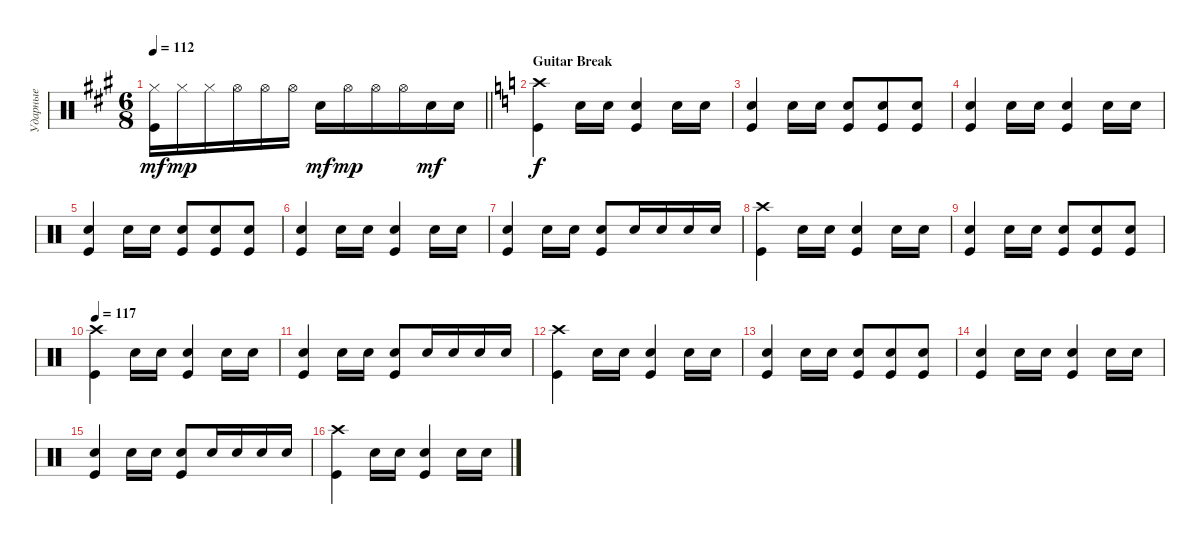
\track ("Ударные" "Ударные") {instrument percussion}
\staff {score}
\articulation defaults
\ts (6 8)
\tempo 112
\clef neutral
\barLineRight lightlight
\ks f#minor
("Kick (hit)" "Hi-Hat (closed)").16{dy mf} "Hi-Hat (closed)".16{dy mp} "Hi-Hat (closed)".16 "Hi-Hat (open)".16 "Hi-Hat (open)".16 "Hi-Hat (open)".16 "Snare (hit) 2".16{dy mf} "Hi-Hat (open)".16{dy mp} "Hi-Hat (open)".16 "Hi-Hat (open)".16 "Snare (hit) 2".16{dy mf} "Snare (hit) 2".16 |
\section ("" "Guitar Break")
\ks aminor
("Kick (hit)" "Crash high (hit)").4{dy f} "Snare (hit) 2".16 "Snare (hit) 2".16 ("Kick (hit)" "Snare (hit) 2").4 "Snare (hit) 2".16 "Snare (hit) 2".16 |
("Snare (hit) 2" "Kick (hit)").4 "Snare (hit) 2".16 "Snare (hit) 2".16 ("Snare (hit) 2" "Kick (hit)").8 ("Snare (hit) 2" "Kick (hit)").8 ("Snare (hit) 2" "Kick (hit)").8 |
("Kick (hit)" "Snare (hit) 2").4 "Snare (hit) 2".16 "Snare (hit) 2".16 ("Kick (hit)" "Snare (hit) 2").4 "Snare (hit) 2".16 "Snare (hit) 2".16 |
("Snare (hit) 2" "Kick (hit)").4 "Snare (hit) 2".16 "Snare (hit) 2".16 ("Snare (hit) 2" "Kick (hit)").8 ("Snare (hit) 2" "Kick (hit)").8 ("Snare (hit) 2" "Kick (hit)").8 |
("Kick (hit)" "Snare (hit) 2").4 "Snare (hit) 2".16 "Snare (hit) 2".16 ("Kick (hit)" "Snare (hit) 2").4 "Snare (hit) 2".16 "Snare (hit) 2".16 |
("Snare (hit) 2" "Kick (hit)").4 "Snare (hit) 2".16 "Snare (hit) 2".16 ("Snare (hit) 2" "Kick (hit)").8 "Snare (hit) 2".16 "Snare (hit) 2".16 "Snare (hit) 2".16 "Snare (hit) 2".16 |
("Kick (hit)" "Crash high (hit)").4 "Snare (hit) 2".16 "Snare (hit) 2".16 ("Kick (hit)" "Snare (hit) 2").4 "Snare (hit) 2".16 "Snare (hit) 2".16 |
("Snare (hit) 2" "Kick (hit)").4 "Snare (hit) 2".16 "Snare (hit) 2".16 ("Snare (hit) 2" "Kick (hit)").8 ("Snare (hit) 2" "Kick (hit)").8 ("Snare (hit) 2" "Kick (hit)").8 |
\tempo 117
("Kick (hit)" "Crash high (hit)").4 "Snare (hit) 2".16 "Snare (hit) 2".16 ("Kick (hit)" "Snare (hit) 2").4 "Snare (hit) 2".16 "Snare (hit) 2".16 |
("Snare (hit) 2" "Kick (hit)").4 "Snare (hit) 2".16 "Snare (hit) 2".16 ("Snare (hit) 2" "Kick (hit)").8 "Snare (hit) 2".16 "Snare (hit) 2".16 "Snare (hit) 2".16 "Snare (hit) 2".16 |
("Kick (hit)" "Crash high (hit)").4 "Snare (hit) 2".16 "Snare (hit) 2".16 ("Kick (hit)" "Snare (hit) 2").4 "Snare (hit) 2".16 "Snare (hit) 2".16 |
("Snare (hit) 2" "Kick (hit)").4 "Snare (hit) 2".16 "Snare (hit) 2".16 ("Snare (hit) 2" "Kick (hit)").8 ("Snare (hit) 2" "Kick (hit)").8 ("Snare (hit) 2" "Kick (hit)").8 |
("Kick (hit)" "Snare (hit) 2").4 "Snare (hit) 2".16 "Snare (hit) 2".16 ("Kick (hit)" "Snare (hit) 2").4 "Snare (hit) 2".16 "Snare (hit) 2".16 |
("Snare (hit) 2" "Kick (hit)").4 "Snare (hit) 2".16 "Snare (hit) 2".16 ("Snare (hit) 2" "Kick (hit)").8 "Snare (hit) 2".16 "Snare (hit) 2".16 "Snare (hit) 2".16 "Snare (hit) 2".16 |
("Kick (hit)" "Crash high (hit)").4 "Snare (hit) 2".16 "Snare (hit) 2".16 ("Kick (hit)" "Snare (hit) 2").4 "Snare (hit) 2".16 "Snare (hit) 2".16
